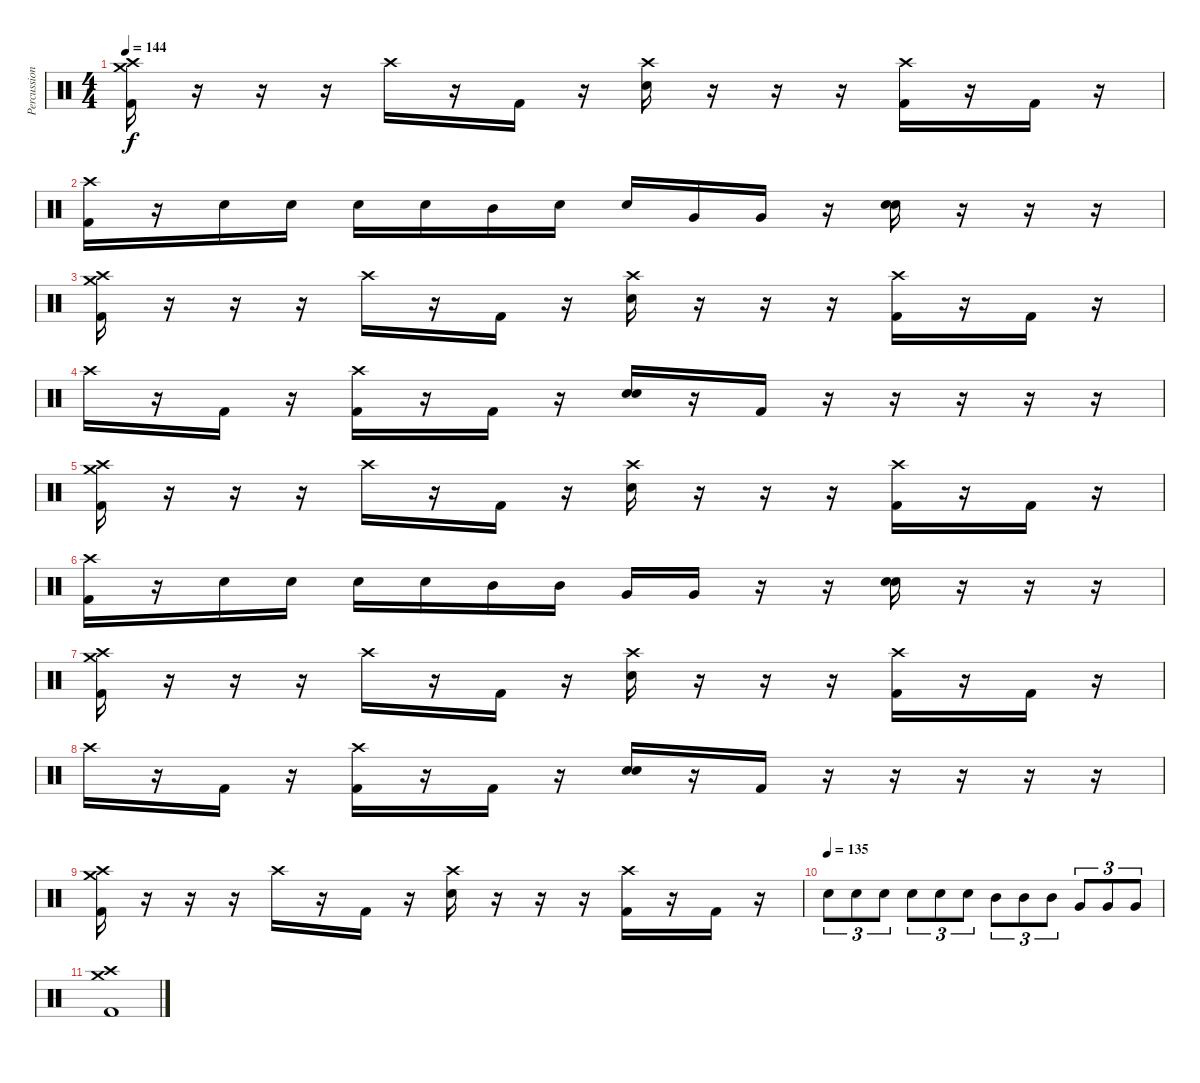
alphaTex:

\track ("Percussion" "Percussion") {instrument percussion}
\staff {score}
\articulation defaults
\ts (4 4)
\tempo 144
\clef neutral
\ks c
("Crash medium (hit)" "Crash high (hit)" "Kick (hit) 2").16{dy f} r.16 r.16 r.16 "Crash high (hit)".16 r.16 "Kick (hit) 2".16 r.16 ("Crash high (hit)" "Electric Snare (hit)").16 r.16 r.16 r.16 ("Crash high (hit)" "Kick (hit) 2").16 r.16 "Kick (hit) 2".16 r.16 |
("Crash high (hit)" "Kick (hit) 2").16 r.16 "Electric Snare (hit)".16 "Electric Snare (hit)".16 "Electric Snare (hit)".16 "Electric Snare (hit)".16 "Mid Tom (hit)".16 "Electric Snare (hit)".16 "Electric Snare (hit)".16 "Very Low Tom (hit)".16 "Very Low Tom (hit)".16 r.16 ("Electric Snare (hit)" "Electric Snare (hit)").16{bd 480} r.16 r.16 r.16 |
("Crash medium (hit)" "Crash high (hit)" "Kick (hit) 2").16 r.16 r.16 r.16 "Crash high (hit)".16 r.16 "Kick (hit) 2".16 r.16 ("Crash high (hit)" "Electric Snare (hit)").16 r.16 r.16 r.16 ("Crash high (hit)" "Kick (hit) 2").16 r.16 "Kick (hit) 2".16 r.16 |
"Crash high (hit)".16 r.16 "Kick (hit) 2".16 r.16 ("Crash high (hit)" "Kick (hit) 2").16 r.16 "Kick (hit) 2".16 r.16 ("Electric Snare (hit)" "Electric Snare (hit)").16{bd 480} r.16 "Kick (hit) 2".16 r.16 r.16 r.16 r.16 r.16 |
("Crash medium (hit)" "Crash high (hit)" "Kick (hit) 2").16 r.16 r.16 r.16 "Crash high (hit)".16 r.16 "Kick (hit) 2".16 r.16 ("Crash high (hit)" "Electric Snare (hit)").16 r.16 r.16 r.16 ("Crash high (hit)" "Kick (hit) 2").16 r.16 "Kick (hit) 2".16 r.16 |
("Crash high (hit)" "Kick (hit) 2").16 r.16 "Electric Snare (hit)".16 "Electric Snare (hit)".16 "Electric Snare (hit)".16 "Electric Snare (hit)".16 "Mid Tom (hit)".16 "Mid Tom (hit)".16 "Very Low Tom (hit)".16 "Very Low Tom (hit)".16 r.16 r.16 ("Electric Snare (hit)" "Electric Snare (hit)").16{bd 480} r.16 r.16 r.16 |
("Crash medium (hit)" "Crash high (hit)" "Kick (hit) 2").16 r.16 r.16 r.16 "Crash high (hit)".16 r.16 "Kick (hit) 2".16 r.16 ("Crash high (hit)" "Electric Snare (hit)").16 r.16 r.16 r.16 ("Crash high (hit)" "Kick (hit) 2").16 r.16 "Kick (hit) 2".16 r.16 |
"Crash high (hit)".16 r.16 "Kick (hit) 2".16 r.16 ("Crash high (hit)" "Kick (hit) 2").16 r.16 "Kick (hit) 2".16 r.16 ("Electric Snare (hit)" "Electric Snare (hit)").16{bd 480} r.16 "Kick (hit) 2".16 r.16 r.16 r.16 r.16 r.16 |
("Crash medium (hit)" "Crash high (hit)" "Kick (hit) 2").16 r.16 r.16 r.16 "Crash high (hit)".16 r.16 "Kick (hit) 2".16 r.16 ("Crash high (hit)" "Electric Snare (hit)").16 r.16 r.16 r.16 ("Crash high (hit)" "Kick (hit) 2").16 r.16 "Kick (hit) 2".16 r.16 |
\tempo (135)
"Electric Snare (hit)".8{tu (3 2)} "Electric Snare (hit)".8{tu (3 2)} "Electric Snare (hit)".8{tu (3 2)} "Electric Snare (hit)".8{tu (3 2)} "Electric Snare (hit)".8{tu (3 2)} "Electric Snare (hit)".8{tu (3 2)} "Mid Tom (hit)".8{tu (3 2)} "Mid Tom (hit)".8{tu (3 2)} "Mid Tom (hit)".8{tu (3 2)} "Very Low Tom (hit)".8{tu (3 2)} "Very Low Tom (hit)".8{tu (3 2)} "Very Low Tom (hit)".8{tu (3 2)} |
("Crash medium (hit)" "Crash high (hit)" "Kick (hit) 2").1
